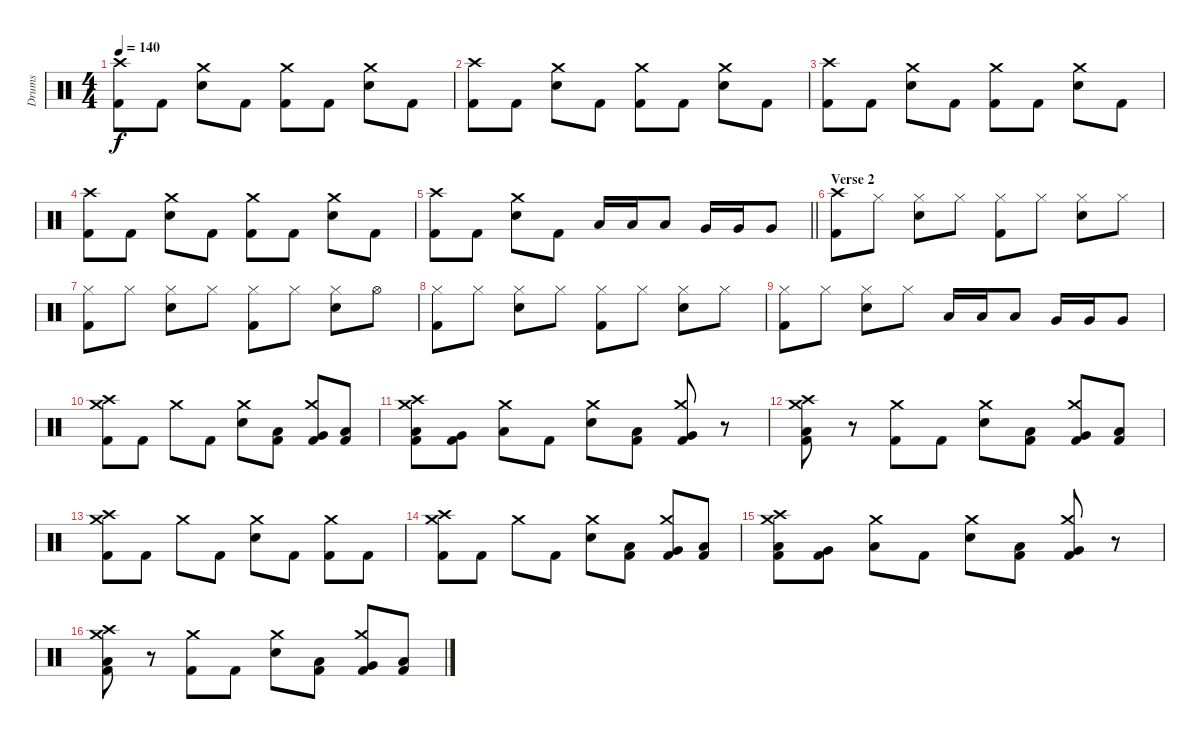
\track ("Drums" "Drums") {instrument percussion}
\staff {score}
\articulation defaults
\ts (4 4)
\tempo 140
\clef neutral
\ks c
("Crash high (hit)" "Kick (hit) 2").8{dy f} "Kick (hit) 2".8 ("Crash medium (hit)" "Snare (hit) 2").8 "Kick (hit) 2".8 ("Crash medium (hit)" "Kick (hit) 2").8 "Kick (hit) 2".8 ("Crash medium (hit)" "Snare (hit) 2").8 "Kick (hit) 2".8 |
("Crash high (hit)" "Kick (hit) 2").8 "Kick (hit) 2".8 ("Crash medium (hit)" "Snare (hit) 2").8 "Kick (hit) 2".8 ("Crash medium (hit)" "Kick (hit) 2").8 "Kick (hit) 2".8 ("Crash medium (hit)" "Snare (hit) 2").8 "Kick (hit) 2".8 |
("Crash high (hit)" "Kick (hit) 2").8 "Kick (hit) 2".8 ("Crash medium (hit)" "Snare (hit) 2").8 "Kick (hit) 2".8 ("Crash medium (hit)" "Kick (hit) 2").8 "Kick (hit) 2".8 ("Crash medium (hit)" "Snare (hit) 2").8 "Kick (hit) 2".8 |
("Crash high (hit)" "Kick (hit) 2").8 "Kick (hit) 2".8 ("Crash medium (hit)" "Snare (hit) 2").8 "Kick (hit) 2".8 ("Crash medium (hit)" "Kick (hit) 2").8 "Kick (hit) 2".8 ("Crash medium (hit)" "Snare (hit) 2").8 "Kick (hit) 2".8 |
\barLineRight lightlight
("Crash high (hit)" "Kick (hit) 2").8 "Kick (hit) 2".8 ("Crash medium (hit)" "Snare (hit) 2").8 "Kick (hit) 2".8 "Low Tom (hit)".16 "Low Tom (hit)".16 "Low Tom (hit)".8 "Very Low Tom (hit)".16 "Very Low Tom (hit)".16 "Very Low Tom (hit)".8 |
\section ("" "Verse 2")
("Crash high (hit)" "Kick (hit) 2").8 "Hi-Hat (closed)".8 ("Hi-Hat (closed)" "Snare (hit) 2").8 "Hi-Hat (closed)".8 ("Hi-Hat (closed)" "Kick (hit) 2").8 "Hi-Hat (closed)".8 ("Hi-Hat (closed)" "Snare (hit) 2").8 "Hi-Hat (closed)".8 |
("Hi-Hat (closed)" "Kick (hit) 2").8 "Hi-Hat (closed)".8 ("Hi-Hat (closed)" "Snare (hit) 2").8 "Hi-Hat (closed)".8 ("Hi-Hat (closed)" "Kick (hit) 2").8 "Hi-Hat (closed)".8 ("Hi-Hat (closed)" "Snare (hit) 2").8 "Hi-Hat (open)".8 |
("Hi-Hat (closed)" "Kick (hit) 2").8 "Hi-Hat (closed)".8 ("Hi-Hat (closed)" "Snare (hit) 2").8 "Hi-Hat (closed)".8 ("Hi-Hat (closed)" "Kick (hit) 2").8 "Hi-Hat (closed)".8 ("Hi-Hat (closed)" "Snare (hit) 2").8 "Hi-Hat (closed)".8 |
("Hi-Hat (closed)" "Kick (hit) 2").8 "Hi-Hat (closed)".8 ("Hi-Hat (closed)" "Snare (hit) 2").8 "Hi-Hat (closed)".8 "Low Tom (hit)".16 "Low Tom (hit)".16 "Low Tom (hit)".8 "Very Low Tom (hit)".16 "Very Low Tom (hit)".16 "Very Low Tom (hit)".8 |
("Crash high (hit)" "Crash medium (hit)" "Kick (hit) 2").8 "Kick (hit) 2".8 "Crash medium (hit)".8 "Kick (hit) 2".8 ("Crash medium (hit)" "Snare (hit) 2").8 ("Low Tom (hit)" "Kick (hit) 2").8 ("Crash medium (hit)" "Very Low Tom (hit)" "Kick (hit) 2").8 ("Low Floor Tom (hit)" "Kick (hit) 2").8 |
("Crash high (hit)" "Crash medium (hit)" "Low Tom (hit)" "Kick (hit) 2").8 ("Very Low Tom (hit)" "Kick (hit) 2").8 ("Crash medium (hit)" "Low Floor Tom (hit)").8 "Kick (hit) 2".8 ("Crash medium (hit)" "Snare (hit) 2").8 ("Low Tom (hit)" "Kick (hit) 2").8 ("Crash medium (hit)" "Very Low Tom (hit)" "Kick (hit) 2").8 r.8 |
("Crash high (hit)" "Crash medium (hit)" "Low Tom (hit)" "Kick (hit) 2").8 r.8 ("Crash medium (hit)" "Kick (hit) 2").8 "Kick (hit) 2".8 ("Crash medium (hit)" "Snare (hit) 2").8 ("Low Tom (hit)" "Kick (hit) 2").8 ("Crash medium (hit)" "Very Low Tom (hit)" "Kick (hit) 2").8 ("Low Floor Tom (hit)" "Kick (hit) 2").8 |
("Crash high (hit)" "Crash medium (hit)" "Kick (hit) 2").8 "Kick (hit) 2".8 "Crash medium (hit)".8 "Kick (hit) 2".8 ("Crash medium (hit)" "Snare (hit) 2").8 "Kick (hit) 2".8 ("Crash medium (hit)" "Kick (hit) 2").8 "Kick (hit) 2".8 |
("Crash high (hit)" "Crash medium (hit)" "Kick (hit) 2").8 "Kick (hit) 2".8 "Crash medium (hit)".8 "Kick (hit) 2".8 ("Crash medium (hit)" "Snare (hit) 2").8 ("Low Tom (hit)" "Kick (hit) 2").8 ("Crash medium (hit)" "Very Low Tom (hit)" "Kick (hit) 2").8 ("Low Floor Tom (hit)" "Kick (hit) 2").8 |
("Crash high (hit)" "Crash medium (hit)" "Low Tom (hit)" "Kick (hit) 2").8 ("Very Low Tom (hit)" "Kick (hit) 2").8 ("Crash medium (hit)" "Low Floor Tom (hit)").8 "Kick (hit) 2".8 ("Crash medium (hit)" "Snare (hit) 2").8 ("Low Tom (hit)" "Kick (hit) 2").8 ("Crash medium (hit)" "Very Low Tom (hit)" "Kick (hit) 2").8 r.8 |
("Crash high (hit)" "Crash medium (hit)" "Low Tom (hit)" "Kick (hit) 2").8 r.8 ("Crash medium (hit)" "Kick (hit) 2").8 "Kick (hit) 2".8 ("Crash medium (hit)" "Snare (hit) 2").8 ("Low Tom (hit)" "Kick (hit) 2").8 ("Crash medium (hit)" "Very Low Tom (hit)" "Kick (hit) 2").8 ("Low Floor Tom (hit)" "Kick (hit) 2").8
